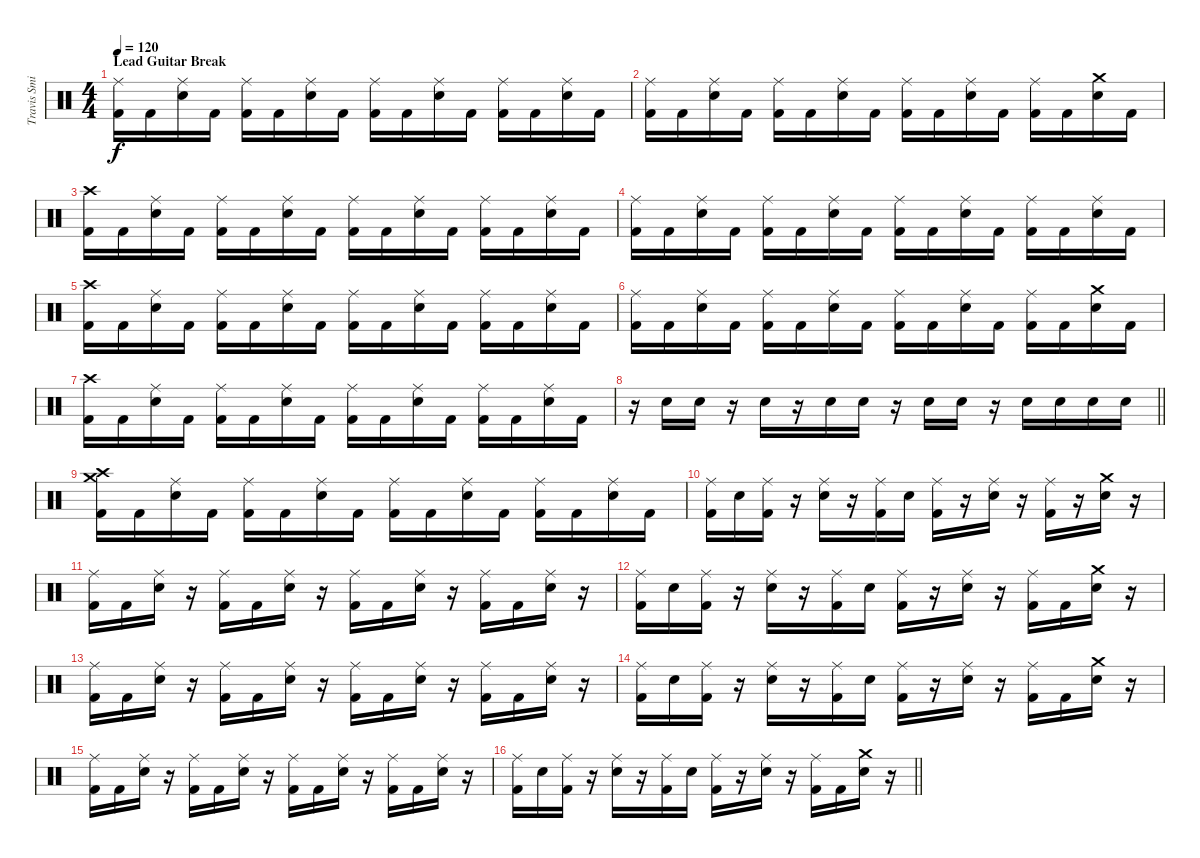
\track ("Travis Smith" "Travis Smi") {instrument percussion}
\staff {score}
\articulation defaults
\ts (4 4)
\section ("" "Lead Guitar Break")
\tempo 120
\clef neutral
\ks c
("Ride (middle)" "Kick (hit) 2").16{dy f} "Kick (hit) 2".16 ("Ride (middle)" "Electric Snare (hit)").16 "Kick (hit) 2".16 ("Ride (middle)" "Kick (hit) 2").16 "Kick (hit) 2".16 ("Ride (middle)" "Electric Snare (hit)").16 "Kick (hit) 2".16 ("Ride (middle)" "Kick (hit) 2").16 "Kick (hit) 2".16 ("Ride (middle)" "Electric Snare (hit)").16 "Kick (hit) 2".16 ("Ride (middle)" "Kick (hit) 2").16 "Kick (hit) 2".16 ("Ride (middle)" "Electric Snare (hit)").16 "Kick (hit) 2".16 |
("Ride (middle)" "Kick (hit) 2").16 "Kick (hit) 2".16 ("Ride (middle)" "Electric Snare (hit)").16 "Kick (hit) 2".16 ("Ride (middle)" "Kick (hit) 2").16 "Kick (hit) 2".16 ("Ride (middle)" "Electric Snare (hit)").16 "Kick (hit) 2".16 ("Ride (middle)" "Kick (hit) 2").16 "Kick (hit) 2".16 ("Ride (middle)" "Electric Snare (hit)").16 "Kick (hit) 2".16 ("Ride (middle)" "Kick (hit) 2").16 "Kick (hit) 2".16 ("Crash medium (hit)" "Electric Snare (hit)").16 "Kick (hit) 2".16 |
("Crash high (hit)" "Kick (hit) 2").16 "Kick (hit) 2".16 ("Ride (middle)" "Electric Snare (hit)").16 "Kick (hit) 2".16 ("Ride (middle)" "Kick (hit) 2").16 "Kick (hit) 2".16 ("Ride (middle)" "Electric Snare (hit)").16 "Kick (hit) 2".16 ("Ride (middle)" "Kick (hit) 2").16 "Kick (hit) 2".16 ("Ride (middle)" "Electric Snare (hit)").16 "Kick (hit) 2".16 ("Ride (middle)" "Kick (hit) 2").16 "Kick (hit) 2".16 ("Ride (middle)" "Electric Snare (hit)").16 "Kick (hit) 2".16 |
("Ride (middle)" "Kick (hit) 2").16 "Kick (hit) 2".16 ("Ride (middle)" "Electric Snare (hit)").16 "Kick (hit) 2".16 ("Ride (middle)" "Kick (hit) 2").16 "Kick (hit) 2".16 ("Ride (middle)" "Electric Snare (hit)").16 "Kick (hit) 2".16 ("Ride (middle)" "Kick (hit) 2").16 "Kick (hit) 2".16 ("Ride (middle)" "Electric Snare (hit)").16 "Kick (hit) 2".16 ("Ride (middle)" "Kick (hit) 2").16 "Kick (hit) 2".16 ("Ride (middle)" "Electric Snare (hit)").16 "Kick (hit) 2".16 |
("Crash high (hit)" "Kick (hit) 2").16 "Kick (hit) 2".16 ("Ride (middle)" "Electric Snare (hit)").16 "Kick (hit) 2".16 ("Ride (middle)" "Kick (hit) 2").16 "Kick (hit) 2".16 ("Ride (middle)" "Electric Snare (hit)").16 "Kick (hit) 2".16 ("Ride (middle)" "Kick (hit) 2").16 "Kick (hit) 2".16 ("Ride (middle)" "Electric Snare (hit)").16 "Kick (hit) 2".16 ("Ride (middle)" "Kick (hit) 2").16 "Kick (hit) 2".16 ("Ride (middle)" "Electric Snare (hit)").16 "Kick (hit) 2".16 |
("Ride (middle)" "Kick (hit) 2").16 "Kick (hit) 2".16 ("Ride (middle)" "Electric Snare (hit)").16 "Kick (hit) 2".16 ("Ride (middle)" "Kick (hit) 2").16 "Kick (hit) 2".16 ("Ride (middle)" "Electric Snare (hit)").16 "Kick (hit) 2".16 ("Ride (middle)" "Kick (hit) 2").16 "Kick (hit) 2".16 ("Ride (middle)" "Electric Snare (hit)").16 "Kick (hit) 2".16 ("Ride (middle)" "Kick (hit) 2").16 "Kick (hit) 2".16 ("Crash medium (hit)" "Electric Snare (hit)").16 "Kick (hit) 2".16 |
("Crash high (hit)" "Kick (hit) 2").16 "Kick (hit) 2".16 ("Ride (middle)" "Electric Snare (hit)").16 "Kick (hit) 2".16 ("Ride (middle)" "Kick (hit) 2").16 "Kick (hit) 2".16 ("Ride (middle)" "Electric Snare (hit)").16 "Kick (hit) 2".16 ("Ride (middle)" "Kick (hit) 2").16 "Kick (hit) 2".16 ("Ride (middle)" "Electric Snare (hit)").16 "Kick (hit) 2".16 ("Ride (middle)" "Kick (hit) 2").16 "Kick (hit) 2".16 ("Ride (middle)" "Electric Snare (hit)").16 "Kick (hit) 2".16 |
\barLineRight lightlight
r.16 "Electric Snare (hit)".16 "Electric Snare (hit)".16 r.16 "Electric Snare (hit)".16 r.16 "Electric Snare (hit)".16 "Electric Snare (hit)".16 r.16 "Electric Snare (hit)".16 "Electric Snare (hit)".16 r.16 "Electric Snare (hit)".16 "Electric Snare (hit)".16 "Electric Snare (hit)".16 "Electric Snare (hit)".16 |
("Crash high (hit)" "Crash medium (hit)" "Kick (hit) 2").16 "Kick (hit) 2".16 ("Ride (middle)" "Electric Snare (hit)").16 "Kick (hit) 2".16 ("Ride (middle)" "Kick (hit) 2").16 "Kick (hit) 2".16 ("Ride (middle)" "Electric Snare (hit)").16 "Kick (hit) 2".16 ("Ride (middle)" "Kick (hit) 2").16 "Kick (hit) 2".16 ("Ride (middle)" "Electric Snare (hit)").16 "Kick (hit) 2".16 ("Ride (middle)" "Kick (hit) 2").16 "Kick (hit) 2".16 ("Ride (middle)" "Electric Snare (hit)").16 "Kick (hit) 2".16 |
("Ride (middle)" "Kick (hit) 2").16 "Electric Snare (hit)".16 ("Ride (middle)" "Kick (hit) 2").16 r.16 ("Ride (middle)" "Electric Snare (hit)").16 r.16 ("Ride (middle)" "Kick (hit) 2").16 "Electric Snare (hit)".16 ("Ride (middle)" "Kick (hit) 2").16 r.16 ("Ride (middle)" "Electric Snare (hit)").16 r.16 ("Ride (middle)" "Kick (hit) 2").16 r.16 ("Crash medium (hit)" "Electric Snare (hit)").16 r.16 |
("Ride (middle)" "Kick (hit) 2").16 "Kick (hit) 2".16 ("Ride (middle)" "Electric Snare (hit)").16 r.16 ("Ride (middle)" "Kick (hit) 2").16 "Kick (hit) 2".16 ("Ride (middle)" "Electric Snare (hit)").16 r.16 ("Ride (middle)" "Kick (hit) 2").16 "Kick (hit) 2".16 ("Ride (middle)" "Electric Snare (hit)").16 r.16 ("Ride (middle)" "Kick (hit) 2").16 "Kick (hit) 2".16 ("Ride (middle)" "Electric Snare (hit)").16 r.16 |
("Ride (middle)" "Kick (hit) 2").16 "Electric Snare (hit)".16 ("Ride (middle)" "Kick (hit) 2").16 r.16 ("Ride (middle)" "Electric Snare (hit)").16 r.16 ("Ride (middle)" "Kick (hit) 2").16 "Electric Snare (hit)".16 ("Ride (middle)" "Kick (hit) 2").16 r.16 ("Ride (middle)" "Electric Snare (hit)").16 r.16 ("Ride (middle)" "Kick (hit) 2").16 "Kick (hit) 2".16 ("Crash medium (hit)" "Electric Snare (hit)").16 r.16 |
("Ride (middle)" "Kick (hit) 2").16 "Kick (hit) 2".16 ("Ride (middle)" "Electric Snare (hit)").16 r.16 ("Ride (middle)" "Kick (hit) 2").16 "Kick (hit) 2".16 ("Ride (middle)" "Electric Snare (hit)").16 r.16 ("Ride (middle)" "Kick (hit) 2").16 "Kick (hit) 2".16 ("Ride (middle)" "Electric Snare (hit)").16 r.16 ("Ride (middle)" "Kick (hit) 2").16 "Kick (hit) 2".16 ("Ride (middle)" "Electric Snare (hit)").16 r.16 |
("Ride (middle)" "Kick (hit) 2").16 "Electric Snare (hit)".16 ("Ride (middle)" "Kick (hit) 2").16 r.16 ("Ride (middle)" "Electric Snare (hit)").16 r.16 ("Ride (middle)" "Kick (hit) 2").16 "Electric Snare (hit)".16 ("Ride (middle)" "Kick (hit) 2").16 r.16 ("Ride (middle)" "Electric Snare (hit)").16 r.16 ("Ride (middle)" "Kick (hit) 2").16 "Kick (hit) 2".16 ("Crash medium (hit)" "Electric Snare (hit)").16 r.16 |
("Ride (middle)" "Kick (hit) 2").16 "Kick (hit) 2".16 ("Ride (middle)" "Electric Snare (hit)").16 r.16 ("Ride (middle)" "Kick (hit) 2").16 "Kick (hit) 2".16 ("Ride (middle)" "Electric Snare (hit)").16 r.16 ("Ride (middle)" "Kick (hit) 2").16 "Kick (hit) 2".16 ("Ride (middle)" "Electric Snare (hit)").16 r.16 ("Ride (middle)" "Kick (hit) 2").16 "Kick (hit) 2".16 ("Ride (middle)" "Electric Snare (hit)").16 r.16 |
\barLineRight lightlight
("Ride (middle)" "Kick (hit) 2").16 "Electric Snare (hit)".16 ("Ride (middle)" "Kick (hit) 2").16 r.16 ("Ride (middle)" "Electric Snare (hit)").16 r.16 ("Ride (middle)" "Kick (hit) 2").16 "Electric Snare (hit)".16 ("Ride (middle)" "Kick (hit) 2").16 r.16 ("Ride (middle)" "Electric Snare (hit)").16 r.16 ("Ride (middle)" "Kick (hit) 2").16 "Kick (hit) 2".16 ("Crash medium (hit)" "Electric Snare (hit)").16 r.16
